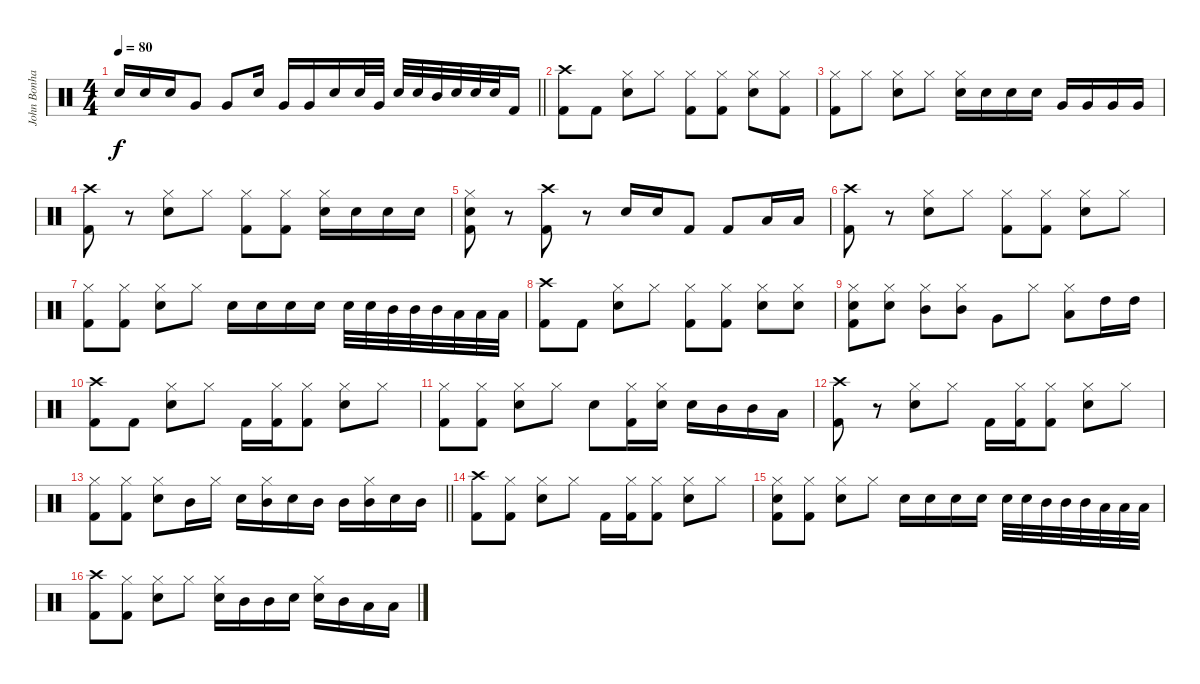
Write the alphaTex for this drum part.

\track ("John Bonham (Bateria)" "John Bonha") {instrument percussion}
\staff {score}
\articulation defaults
\ts (4 4)
\tempo 80
\clef neutral
\barLineRight lightlight
\ks c "Snare (hit) 2".16{dy f} "Snare (hit) 2".16 "Snare (hit) 2".16 "Very Low Tom (hit)".8 "Very Low Tom (hit)".8 "Snare (hit) 2".16 "Very Low Tom (hit)".16 "Very Low Tom (hit)".16 "Snare (hit) 2".16 "Snare (hit) 2".32 "Very Low Tom (hit)".32 "Snare (hit) 2".32 "Snare (hit) 2".32 "Mid Tom (hit)".32 "Snare (hit) 2".32 "Snare (hit) 2".32 "Snare (hit) 2".32 "Kick (hit) 2".16
|
("Kick (hit) 2" "Crash high (hit)").8 "Kick (hit) 2".8 ("Hi-Hat (closed)" "Snare (hit) 2").8 "Hi-Hat (closed)".8 ("Kick (hit) 2" "Hi-Hat (closed)").8 ("Hi-Hat (closed)" "Kick (hit) 2").8 ("Hi-Hat (closed)" "Snare (hit) 2").8 ("Hi-Hat (closed)" "Kick (hit) 2").8 |
("Kick (hit) 2" "Hi-Hat (closed)").8 "Hi-Hat (closed)".8 ("Snare (hit) 2" "Hi-Hat (closed)").8 "Hi-Hat (closed)".8 ("Hi-Hat (closed)" "Snare (hit) 2").16 "Snare (hit) 2".16 "Snare (hit) 2".16 "Snare (hit) 2".16 "Very Low Tom (hit)".16 "Very Low Tom (hit)".16 "Very Low Tom (hit)".16 "Very Low Tom (hit)".16 |
("Crash high (hit)" "Kick (hit) 2").8 r.8 ("Snare (hit) 2" "Hi-Hat (closed)").8 "Hi-Hat (closed)".8 ("Kick (hit) 2" "Hi-Hat (closed)").8 ("Kick (hit) 2" "Hi-Hat (closed)").8 ("Hi-Hat (closed)" "Snare (hit) 2").16 "Snare (hit) 2".16 "Snare (hit) 2".16 "Snare (hit) 2".16 |
("Hi-Hat (closed)" "Snare (hit) 2" "Kick (hit) 2").8 r.8 ("Kick (hit) 2" "Crash high (hit)").8 r.8 "Snare (hit) 2".16 "Snare (hit) 2".16 "Kick (hit) 2".8 "Kick (hit) 2".8 "Low Floor Tom (hit)".16 "Low Floor Tom (hit)".16 |
("Crash high (hit)" "Kick (hit) 2").8 r.8 ("Hi-Hat (closed)" "Snare (hit) 2").8 "Hi-Hat (closed)".8 ("Kick (hit) 2" "Hi-Hat (closed)").8 ("Kick (hit) 2" "Hi-Hat (closed)").8 ("Hi-Hat (closed)" "Snare (hit) 2").8 "Hi-Hat (closed)".8 |
("Hi-Hat (closed)" "Kick (hit) 2").8 ("Hi-Hat (closed)" "Kick (hit) 2").8 ("Snare (hit) 2" "Hi-Hat (closed)").8 "Hi-Hat (closed)".8 "Snare (hit) 2".16 "Snare (hit) 2".16 "Snare (hit) 2".16 "Snare (hit) 2".16 "Snare (hit) 2".32 "Snare (hit) 2".32 "Mid Tom (hit)".32 "Mid Tom (hit)".32 "Mid Tom (hit)".32 "Low Floor Tom (hit)".32 "Low Floor Tom (hit)".32 "Low Floor Tom (hit)".32 |
("Crash high (hit)" "Kick (hit) 2").8 "Kick (hit) 2".8 ("Hi-Hat (closed)" "Snare (hit) 2").8 "Hi-Hat (closed)".8 ("Kick (hit) 2" "Hi-Hat (closed)").8 ("Hi-Hat (closed)" "Kick (hit) 2").8 ("Snare (hit) 2" "Hi-Hat (closed)").8 ("Snare (hit) 2" "Hi-Hat (closed)").8 |
("Hi-Hat (closed)" "Snare (hit) 2" "Kick (hit) 2").8 ("Snare (hit) 2" "Hi-Hat (closed)").8 ("Mid Tom (hit)" "Hi-Hat (closed)").8 ("Hi-Hat (closed)" "Mid Tom (hit)").8 "Very Low Tom (hit)".8 "Hi-Hat (closed)".8 ("Low Floor Tom (hit)" "Hi-Hat (closed)").8 "High Tom (hit)".16 "High Tom (hit)".16 |
("Kick (hit) 2" "Crash high (hit)").8 "Kick (hit) 2".8 ("Hi-Hat (closed)" "Snare (hit) 2").8 "Hi-Hat (closed)".8 "Kick (hit) 2".16 ("Hi-Hat (closed)" "Kick (hit) 2").16 ("Kick (hit) 2" "Hi-Hat (closed)").8 ("Hi-Hat (closed)" "Snare (hit) 2").8 "Hi-Hat (closed)".8 |
("Kick (hit) 2" "Hi-Hat (closed)").8 ("Kick (hit) 2" "Hi-Hat (closed)").8 ("Hi-Hat (closed)" "Snare (hit) 2").8 "Hi-Hat (closed)".8 "Snare (hit) 2".8 ("Hi-Hat (closed)" "Kick (hit) 2").16 ("Hi-Hat (closed)" "Snare (hit) 2").16 "Snare (hit) 2".16 "Mid Tom (hit)".16 "Mid Tom (hit)".16 "Low Floor Tom (hit)".16 |
("Kick (hit) 2" "Crash high (hit)").8 r.8 ("Snare (hit) 2" "Hi-Hat (closed)").8 "Hi-Hat (closed)".8 "Kick (hit) 2".16 ("Hi-Hat (closed)" "Kick (hit) 2").16 ("Kick (hit) 2" "Hi-Hat (closed)").8 ("Snare (hit) 2" "Hi-Hat (closed)").8 "Hi-Hat (closed)".8 |
\barLineRight lightlight
("Hi-Hat (closed)" "Kick (hit) 2").8 ("Hi-Hat (closed)" "Kick (hit) 2").8 ("Snare (hit) 2" "Hi-Hat (closed)").8 "Mid Tom (hit)".16 "Hi-Hat (closed)".16 "Snare (hit) 2".16 ("Mid Tom (hit)" "Hi-Hat (closed)").16 "Snare (hit) 2".16 "Mid Tom (hit)".16 "Mid Tom (hit)".16 ("Hi-Hat (closed)" "Mid Tom (hit)").16 "Snare (hit) 2".16 "Mid Tom (hit)".16 |
("Kick (hit) 2" "Crash high (hit)").8 ("Hi-Hat (closed)" "Kick (hit) 2").8 ("Hi-Hat (closed)" "Snare (hit) 2").8 "Hi-Hat (closed)".8 "Kick (hit) 2".16 ("Hi-Hat (closed)" "Kick (hit) 2").16 ("Hi-Hat (closed)" "Kick (hit) 2").8 ("Hi-Hat (closed)" "Snare (hit) 2").8 "Hi-Hat (closed)".8 |
("Hi-Hat (closed)" "Snare (hit) 2" "Kick (hit) 2").8 ("Hi-Hat (closed)" "Kick (hit) 2").8 ("Snare (hit) 2" "Hi-Hat (closed)").8 "Hi-Hat (closed)".8 "Snare (hit) 2".16 "Snare (hit) 2".16 "Snare (hit) 2".16 "Snare (hit) 2".16 "Snare (hit) 2".32 "Snare (hit) 2".32 "Mid Tom (hit)".32 "Mid Tom (hit)".32 "Mid Tom (hit)".32 "Low Floor Tom (hit)".32 "Low Floor Tom (hit)".32 "Low Floor Tom (hit)".32 |
("Crash high (hit)" "Kick (hit) 2").8 ("Hi-Hat (closed)" "Kick (hit) 2").8 ("Snare (hit) 2" "Hi-Hat (closed)").8 "Hi-Hat (closed)".8 ("Hi-Hat (closed)" "Snare (hit) 2").16 "Mid Tom (hit)".16 "Mid Tom (hit)".16 "Snare (hit) 2".16 ("Hi-Hat (closed)" "Snare (hit) 2").16 "Mid Tom (hit)".16 "Low Floor Tom (hit)".16 "Low Floor Tom (hit)".16
